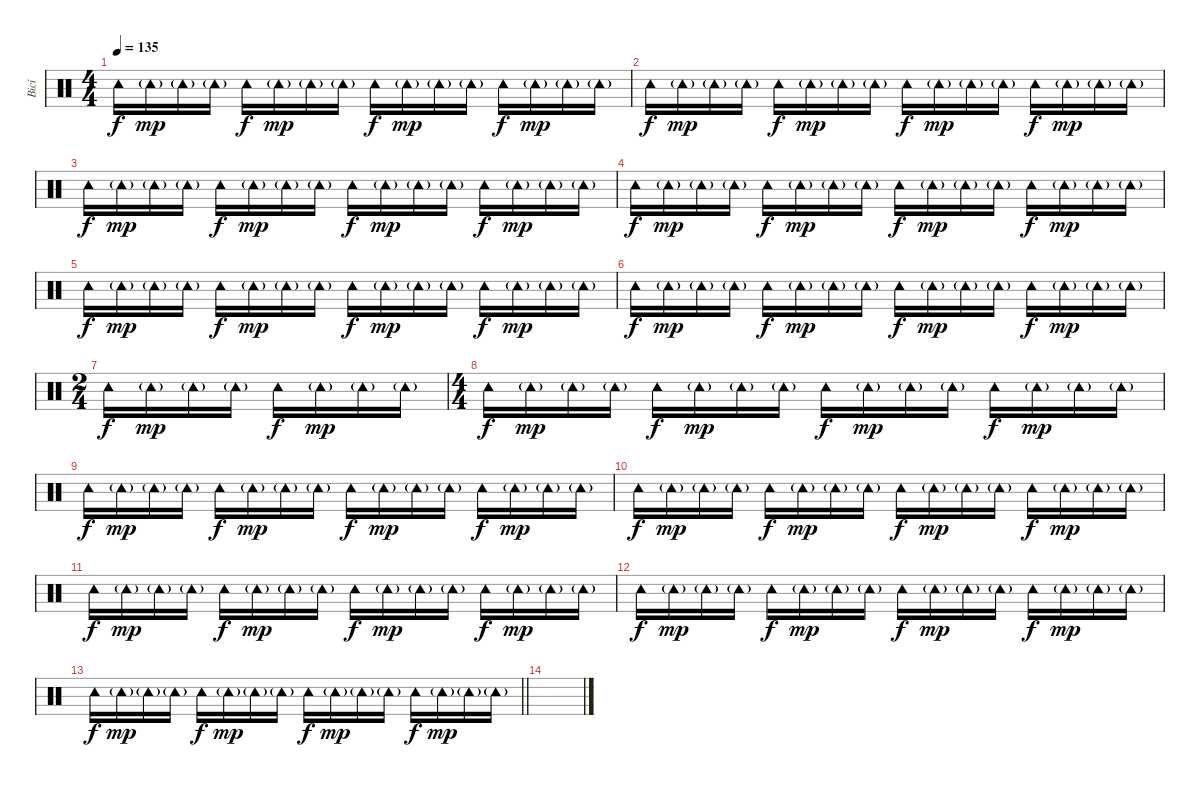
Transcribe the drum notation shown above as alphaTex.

\track ("Bicí" "Bicí") {instrument percussion}
\staff {score}
\articulation defaults
\ts (4 4)
\tempo 135
\clef neutral
\ks c "Tambourine (hit)".16{dy f} "Tambourine (hit)"{g}.16{dy mp} "Tambourine (hit)"{g}.16 "Tambourine (hit)"{g}.16 "Tambourine (hit)".16{dy f} "Tambourine (hit)"{g}.16{dy mp} "Tambourine (hit)"{g}.16 "Tambourine (hit)"{g}.16 "Tambourine (hit)".16{dy f} "Tambourine (hit)"{g}.16{dy mp} "Tambourine (hit)"{g}.16 "Tambourine (hit)"{g}.16 "Tambourine (hit)".16{dy f} "Tambourine (hit)"{g}.16{dy mp} "Tambourine (hit)"{g}.16 "Tambourine (hit)"{g}.16
|
"Tambourine (hit)".16{dy f} "Tambourine (hit)"{g}.16{dy mp} "Tambourine (hit)"{g}.16 "Tambourine (hit)"{g}.16 "Tambourine (hit)".16{dy f} "Tambourine (hit)"{g}.16{dy mp} "Tambourine (hit)"{g}.16 "Tambourine (hit)"{g}.16 "Tambourine (hit)".16{dy f} "Tambourine (hit)"{g}.16{dy mp} "Tambourine (hit)"{g}.16 "Tambourine (hit)"{g}.16 "Tambourine (hit)".16{dy f} "Tambourine (hit)"{g}.16{dy mp} "Tambourine (hit)"{g}.16 "Tambourine (hit)"{g}.16 |
"Tambourine (hit)".16{dy f} "Tambourine (hit)"{g}.16{dy mp} "Tambourine (hit)"{g}.16 "Tambourine (hit)"{g}.16 "Tambourine (hit)".16{dy f} "Tambourine (hit)"{g}.16{dy mp} "Tambourine (hit)"{g}.16 "Tambourine (hit)"{g}.16 "Tambourine (hit)".16{dy f} "Tambourine (hit)"{g}.16{dy mp} "Tambourine (hit)"{g}.16 "Tambourine (hit)"{g}.16 "Tambourine (hit)".16{dy f} "Tambourine (hit)"{g}.16{dy mp} "Tambourine (hit)"{g}.16 "Tambourine (hit)"{g}.16 |
"Tambourine (hit)".16{dy f} "Tambourine (hit)"{g}.16{dy mp} "Tambourine (hit)"{g}.16 "Tambourine (hit)"{g}.16 "Tambourine (hit)".16{dy f} "Tambourine (hit)"{g}.16{dy mp} "Tambourine (hit)"{g}.16 "Tambourine (hit)"{g}.16 "Tambourine (hit)".16{dy f} "Tambourine (hit)"{g}.16{dy mp} "Tambourine (hit)"{g}.16 "Tambourine (hit)"{g}.16 "Tambourine (hit)".16{dy f} "Tambourine (hit)"{g}.16{dy mp} "Tambourine (hit)"{g}.16 "Tambourine (hit)"{g}.16 |
"Tambourine (hit)".16{dy f} "Tambourine (hit)"{g}.16{dy mp} "Tambourine (hit)"{g}.16 "Tambourine (hit)"{g}.16 "Tambourine (hit)".16{dy f} "Tambourine (hit)"{g}.16{dy mp} "Tambourine (hit)"{g}.16 "Tambourine (hit)"{g}.16 "Tambourine (hit)".16{dy f} "Tambourine (hit)"{g}.16{dy mp} "Tambourine (hit)"{g}.16 "Tambourine (hit)"{g}.16 "Tambourine (hit)".16{dy f} "Tambourine (hit)"{g}.16{dy mp} "Tambourine (hit)"{g}.16 "Tambourine (hit)"{g}.16 |
"Tambourine (hit)".16{dy f} "Tambourine (hit)"{g}.16{dy mp} "Tambourine (hit)"{g}.16 "Tambourine (hit)"{g}.16 "Tambourine (hit)".16{dy f} "Tambourine (hit)"{g}.16{dy mp} "Tambourine (hit)"{g}.16 "Tambourine (hit)"{g}.16 "Tambourine (hit)".16{dy f} "Tambourine (hit)"{g}.16{dy mp} "Tambourine (hit)"{g}.16 "Tambourine (hit)"{g}.16 "Tambourine (hit)".16{dy f} "Tambourine (hit)"{g}.16{dy mp} "Tambourine (hit)"{g}.16 "Tambourine (hit)"{g}.16 |
\ts (2 4)
"Tambourine (hit)".16{dy f} "Tambourine (hit)"{g}.16{dy mp} "Tambourine (hit)"{g}.16 "Tambourine (hit)"{g}.16 "Tambourine (hit)".16{dy f} "Tambourine (hit)"{g}.16{dy mp} "Tambourine (hit)"{g}.16 "Tambourine (hit)"{g}.16 |
\ts (4 4)
"Tambourine (hit)".16{dy f} "Tambourine (hit)"{g}.16{dy mp} "Tambourine (hit)"{g}.16 "Tambourine (hit)"{g}.16 "Tambourine (hit)".16{dy f} "Tambourine (hit)"{g}.16{dy mp} "Tambourine (hit)"{g}.16 "Tambourine (hit)"{g}.16 "Tambourine (hit)".16{dy f} "Tambourine (hit)"{g}.16{dy mp} "Tambourine (hit)"{g}.16 "Tambourine (hit)"{g}.16 "Tambourine (hit)".16{dy f} "Tambourine (hit)"{g}.16{dy mp} "Tambourine (hit)"{g}.16 "Tambourine (hit)"{g}.16 |
"Tambourine (hit)".16{dy f} "Tambourine (hit)"{g}.16{dy mp} "Tambourine (hit)"{g}.16 "Tambourine (hit)"{g}.16 "Tambourine (hit)".16{dy f} "Tambourine (hit)"{g}.16{dy mp} "Tambourine (hit)"{g}.16 "Tambourine (hit)"{g}.16 "Tambourine (hit)".16{dy f} "Tambourine (hit)"{g}.16{dy mp} "Tambourine (hit)"{g}.16 "Tambourine (hit)"{g}.16 "Tambourine (hit)".16{dy f} "Tambourine (hit)"{g}.16{dy mp} "Tambourine (hit)"{g}.16 "Tambourine (hit)"{g}.16 |
"Tambourine (hit)".16{dy f} "Tambourine (hit)"{g}.16{dy mp} "Tambourine (hit)"{g}.16 "Tambourine (hit)"{g}.16 "Tambourine (hit)".16{dy f} "Tambourine (hit)"{g}.16{dy mp} "Tambourine (hit)"{g}.16 "Tambourine (hit)"{g}.16 "Tambourine (hit)".16{dy f} "Tambourine (hit)"{g}.16{dy mp} "Tambourine (hit)"{g}.16 "Tambourine (hit)"{g}.16 "Tambourine (hit)".16{dy f} "Tambourine (hit)"{g}.16{dy mp} "Tambourine (hit)"{g}.16 "Tambourine (hit)"{g}.16 |
"Tambourine (hit)".16{dy f} "Tambourine (hit)"{g}.16{dy mp} "Tambourine (hit)"{g}.16 "Tambourine (hit)"{g}.16 "Tambourine (hit)".16{dy f} "Tambourine (hit)"{g}.16{dy mp} "Tambourine (hit)"{g}.16 "Tambourine (hit)"{g}.16 "Tambourine (hit)".16{dy f} "Tambourine (hit)"{g}.16{dy mp} "Tambourine (hit)"{g}.16 "Tambourine (hit)"{g}.16 "Tambourine (hit)".16{dy f} "Tambourine (hit)"{g}.16{dy mp} "Tambourine (hit)"{g}.16 "Tambourine (hit)"{g}.16 |
"Tambourine (hit)".16{dy f} "Tambourine (hit)"{g}.16{dy mp} "Tambourine (hit)"{g}.16 "Tambourine (hit)"{g}.16 "Tambourine (hit)".16{dy f} "Tambourine (hit)"{g}.16{dy mp} "Tambourine (hit)"{g}.16 "Tambourine (hit)"{g}.16 "Tambourine (hit)".16{dy f} "Tambourine (hit)"{g}.16{dy mp} "Tambourine (hit)"{g}.16 "Tambourine (hit)"{g}.16 "Tambourine (hit)".16{dy f} "Tambourine (hit)"{g}.16{dy mp} "Tambourine (hit)"{g}.16 "Tambourine (hit)"{g}.16 |
\barLineRight lightlight "Tambourine (hit)".16{dy f} "Tambourine (hit)"{g}.16{dy mp} "Tambourine (hit)"{g}.16 "Tambourine (hit)"{g}.16 "Tambourine (hit)".16{dy f} "Tambourine (hit)"{g}.16{dy mp} "Tambourine (hit)"{g}.16 "Tambourine (hit)"{g}.16 "Tambourine (hit)".16{dy f} "Tambourine (hit)"{g}.16{dy mp} "Tambourine (hit)"{g}.16 "Tambourine (hit)"{g}.16 "Tambourine (hit)".16{dy f} "Tambourine (hit)"{g}.16{dy mp} "Tambourine (hit)"{g}.16 "Tambourine (hit)"{g}.16
|
\section ("" "")
